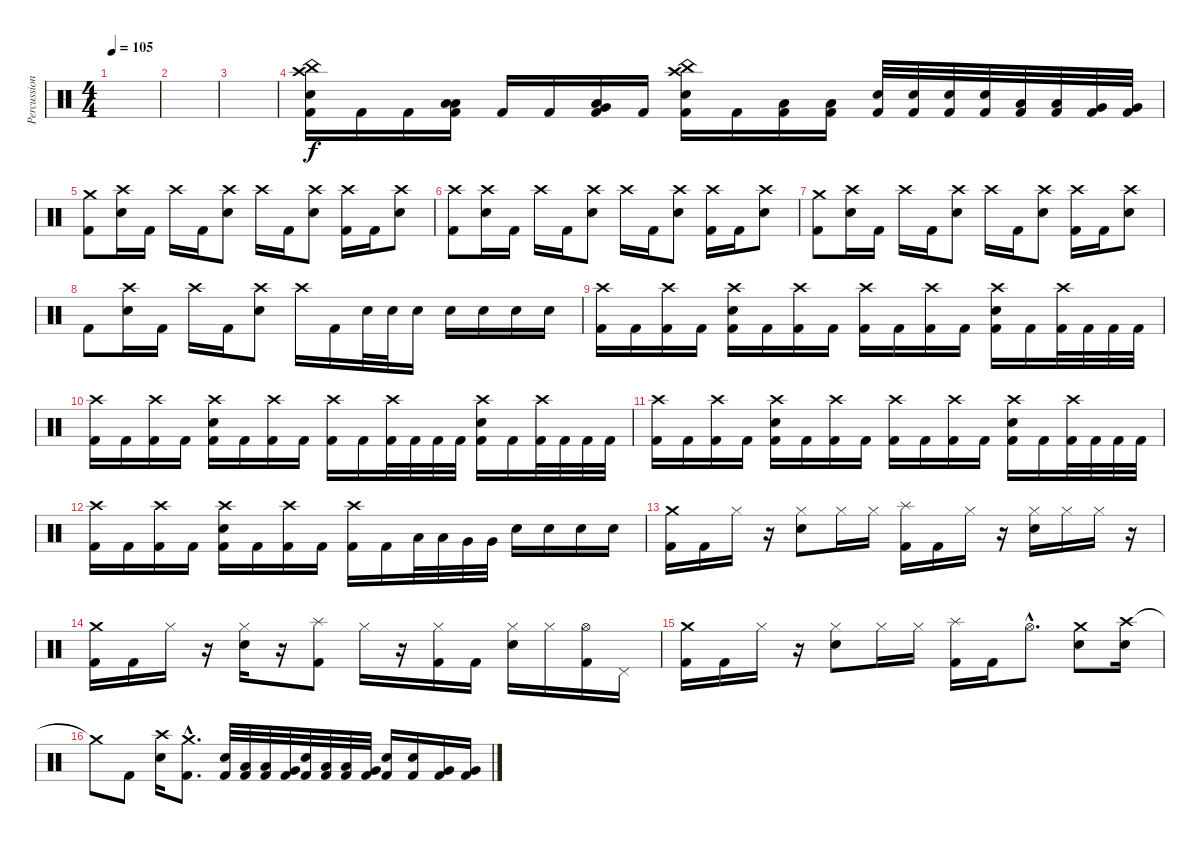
\track ("Percussions" "Percussion") {instrument percussion}
\staff {score}
\articulation defaults
\ts (4 4)
\tempo 105
\clef neutral
\ks c
|
|
|
("Crash high (hit)" "China (hit)" "Electric Snare (hit)" "Kick (hit) 2").16 "Kick (hit) 2".16 "Kick (hit) 2".16 ("Low Tom (hit)" "Low Floor Tom (hit)" "Kick (hit) 2").16 "Kick (hit) 2".16 "Kick (hit) 2".16 ("Very Low Tom (hit)" "Low Floor Tom (hit)" "Kick (hit) 2").16 "Kick (hit) 2".16 ("Crash high (hit)" "China (hit)" "Electric Snare (hit)" "Kick (hit) 2").16 "Kick (hit) 2".16 ("Low Tom (hit)" "Kick (hit) 2").16 ("Low Tom (hit)" "Kick (hit) 2").16 ("Electric Snare (hit)" "Kick (hit) 2").32 ("Electric Snare (hit)" "Kick (hit) 2").32 ("Electric Snare (hit)" "Kick (hit) 2").32 ("Electric Snare (hit)" "Kick (hit) 2").32 ("Low Tom (hit)" "Kick (hit) 2").32 ("Low Tom (hit)" "Kick (hit) 2").32 ("Very Low Tom (hit)" "Kick (hit) 2").32 ("Very Low Tom (hit)" "Kick (hit) 2").32 |
("Crash medium (hit)" "Kick (hit) 2").8 ("Crash high (hit)" "Electric Snare (hit)").16 "Kick (hit) 2".16 "Crash high (hit)".16 "Kick (hit) 2".16 ("Crash high (hit)" "Electric Snare (hit)").8 "Crash high (hit)".16 "Kick (hit) 2".16 ("Crash high (hit)" "Electric Snare (hit)").8 ("Crash high (hit)" "Kick (hit) 2").16 "Kick (hit) 2".16 ("Crash high (hit)" "Electric Snare (hit)").8 |
("Crash high (hit)" "Kick (hit) 2").8 ("Crash high (hit)" "Electric Snare (hit)").16 "Kick (hit) 2".16 "Crash high (hit)".16 "Kick (hit) 2".16 ("Crash high (hit)" "Electric Snare (hit)").8 "Crash high (hit)".16 "Kick (hit) 2".16 ("Crash high (hit)" "Electric Snare (hit)").8 ("Crash high (hit)" "Kick (hit) 2").16 "Kick (hit) 2".16 ("Crash high (hit)" "Electric Snare (hit)").8 |
("Crash medium (hit)" "Kick (hit) 2").8 ("Crash high (hit)" "Electric Snare (hit)").16 "Kick (hit) 2".16 "Crash high (hit)".16 "Kick (hit) 2".16 ("Crash high (hit)" "Electric Snare (hit)").8 "Crash high (hit)".16 "Kick (hit) 2".16 ("Crash high (hit)" "Electric Snare (hit)").8 ("Crash high (hit)" "Kick (hit) 2").16 "Kick (hit) 2".16 ("Crash high (hit)" "Electric Snare (hit)").8 |
"Kick (hit) 2".8 ("Crash high (hit)" "Electric Snare (hit)").16 "Kick (hit) 2".16 "Crash high (hit)".16 "Kick (hit) 2".16 ("Crash high (hit)" "Electric Snare (hit)").8 "Crash high (hit)".16 "Kick (hit) 2".16 "Electric Snare (hit)".32 "Electric Snare (hit)".32 "Electric Snare (hit)".16 "Electric Snare (hit)".16 "Electric Snare (hit)".16 "Electric Snare (hit)".16 "Electric Snare (hit)".16 |
("Crash high (hit)" "Kick (hit) 2").16 "Kick (hit) 2".16 ("Crash high (hit)" "Kick (hit) 2").16 "Kick (hit) 2".16 ("Crash high (hit)" "Electric Snare (hit)" "Kick (hit) 2").16 "Kick (hit) 2".16 ("Crash high (hit)" "Kick (hit) 2").16 "Kick (hit) 2".16 ("Crash high (hit)" "Kick (hit) 2").16 "Kick (hit) 2".16 ("Crash high (hit)" "Kick (hit) 2").16 "Kick (hit) 2".16 ("Crash high (hit)" "Electric Snare (hit)" "Kick (hit) 2").16 "Kick (hit) 2".16 ("Crash high (hit)" "Kick (hit) 2").32 "Kick (hit) 2".32 "Kick (hit) 2".32 "Kick (hit) 2".32 |
("Crash high (hit)" "Kick (hit) 2").16 "Kick (hit) 2".16 ("Crash high (hit)" "Kick (hit) 2").16 "Kick (hit) 2".16 ("Crash high (hit)" "Electric Snare (hit)" "Kick (hit) 2").16 "Kick (hit) 2".16 ("Crash high (hit)" "Kick (hit) 2").16 "Kick (hit) 2".16 ("Crash high (hit)" "Kick (hit) 2").16 "Kick (hit) 2".16 ("Crash high (hit)" "Kick (hit) 2").32 "Kick (hit) 2".32 "Kick (hit) 2".32 "Kick (hit) 2".32 ("Crash high (hit)" "Electric Snare (hit)" "Kick (hit) 2").16 "Kick (hit) 2".16 ("Crash high (hit)" "Kick (hit) 2").32 "Kick (hit) 2".32 "Kick (hit) 2".32 "Kick (hit) 2".32 |
("Crash high (hit)" "Kick (hit) 2").16 "Kick (hit) 2".16 ("Crash high (hit)" "Kick (hit) 2").16 "Kick (hit) 2".16 ("Crash high (hit)" "Electric Snare (hit)" "Kick (hit) 2").16 "Kick (hit) 2".16 ("Crash high (hit)" "Kick (hit) 2").16 "Kick (hit) 2".16 ("Crash high (hit)" "Kick (hit) 2").16 "Kick (hit) 2".16 ("Crash high (hit)" "Kick (hit) 2").16 "Kick (hit) 2".16 ("Crash high (hit)" "Electric Snare (hit)" "Kick (hit) 2").16 "Kick (hit) 2".16 ("Crash high (hit)" "Kick (hit) 2").32 "Kick (hit) 2".32 "Kick (hit) 2".32 "Kick (hit) 2".32 |
("Crash high (hit)" "Kick (hit) 2").16 "Kick (hit) 2".16 ("Crash high (hit)" "Kick (hit) 2").16 "Kick (hit) 2".16 ("Crash high (hit)" "Electric Snare (hit)" "Kick (hit) 2").16 "Kick (hit) 2".16 ("Crash high (hit)" "Kick (hit) 2").16 "Kick (hit) 2".16 ("Crash high (hit)" "Kick (hit) 2").16 "Kick (hit) 2".16 "Low Tom (hit)".32 "Low Tom (hit)".32 "Very Low Tom (hit)".32 "Very Low Tom (hit)".32 "Electric Snare (hit)".16 "Electric Snare (hit)".16 "Electric Snare (hit)".16 "Electric Snare (hit)".16 |
("Crash medium (hit)" "Kick (hit) 2").16 "Kick (hit) 2".16 "Hi-Hat (closed)".16 r.16 ("Hi-Hat (closed)" "Electric Snare (hit)").8 "Hi-Hat (closed)".16 "Hi-Hat (closed)".16 ("Splash (hit)" "Kick (hit) 2").16 "Kick (hit) 2".16 "Hi-Hat (closed)".16 r.16 ("Hi-Hat (closed)" "Electric Snare (hit)").16 "Hi-Hat (closed)".16 "Hi-Hat (closed)".16 r.16 |
("Crash medium (hit)" "Kick (hit) 2").16 "Kick (hit) 2".16 "Hi-Hat (closed)".16 r.16 ("Hi-Hat (closed)" "Electric Snare (hit)").16 r.16 ("Splash (hit)" "Kick (hit) 2").8 "Hi-Hat (closed)".16 r.16 ("Hi-Hat (closed)" "Kick (hit) 2").16 "Kick (hit) 2".16 ("Hi-Hat (closed)" "Electric Snare (hit)").16 "Hi-Hat (closed)".16 ("Hi-Hat (open)" "Kick (hit) 2").16 "Pedal Hi-Hat (hit)".16 |
("Crash medium (hit)" "Kick (hit) 2").16 "Kick (hit) 2".16 "Hi-Hat (closed)".16 r.16 ("Hi-Hat (closed)" "Electric Snare (hit)").8 "Hi-Hat (closed)".16 "Hi-Hat (closed)".16 ("Splash (hit)" "Kick (hit) 2").16 "Kick (hit) 2".16 "Hi-Hat (open)"{hac}.8{d} ("Crash medium (hit)" "Electric Snare (hit)").8 ("Crash high (hit)" "Electric Snare (hit)").16 |
"Crash medium (hit)"{t}.8 "Kick (hit) 2".8 ("Crash high (hit)" "Electric Snare (hit)").16 ("Crash medium (hit)"{hac} "Kick (hit) 2"{hac}).8{d} ("Electric Snare (hit)" "Kick (hit) 2").32 ("Low Tom (hit)" "Kick (hit) 2").32 ("Low Tom (hit)" "Kick (hit) 2").32 ("Very Low Tom (hit)" "Kick (hit) 2").32 ("Electric Snare (hit)" "Kick (hit) 2").32 ("Low Tom (hit)" "Kick (hit) 2").32 ("Low Tom (hit)" "Kick (hit) 2").32 ("Very Low Tom (hit)" "Kick (hit) 2").32 ("Electric Snare (hit)" "Kick (hit) 2").16 ("Electric Snare (hit)" "Kick (hit) 2").16 ("Very Low Tom (hit)" "Kick (hit) 2").16 ("Very Low Tom (hit)" "Kick (hit) 2").16
